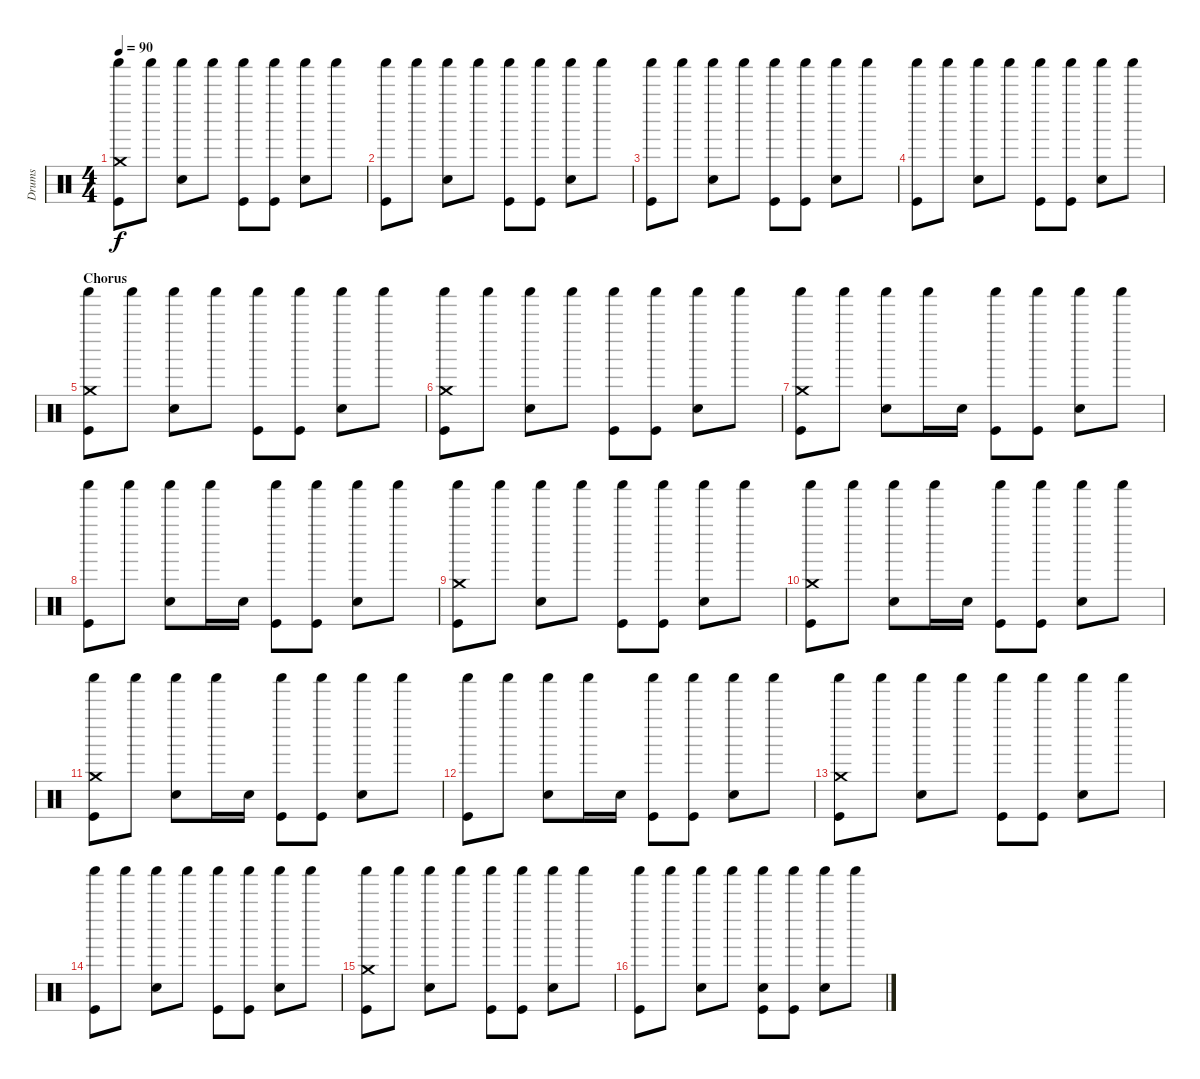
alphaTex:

\track ("Drums" "Drums") {instrument percussion}
\staff {score}
\articulation defaults
\ts (4 4)
\tempo 90
\clef neutral
\ks c
("Shaker (hit)" "Crash medium (hit)" "Kick (hit)").8{dy f} "Shaker (hit)".8 ("Shaker (hit)" "Snare (hit) 2").8 "Shaker (hit)".8 ("Shaker (hit)" "Kick (hit)").8 ("Shaker (hit)" "Kick (hit)").8 ("Shaker (hit)" "Snare (hit) 2").8 "Shaker (hit)".8 |
("Shaker (hit)" "Kick (hit)").8 "Shaker (hit)".8 ("Shaker (hit)" "Snare (hit) 2").8 "Shaker (hit)".8 ("Shaker (hit)" "Kick (hit)").8 ("Shaker (hit)" "Kick (hit)").8 ("Shaker (hit)" "Snare (hit) 2").8 "Shaker (hit)".8 |
("Shaker (hit)" "Kick (hit)").8 "Shaker (hit)".8 ("Shaker (hit)" "Snare (hit) 2").8 "Shaker (hit)".8 ("Shaker (hit)" "Kick (hit)").8 ("Shaker (hit)" "Kick (hit)").8 ("Shaker (hit)" "Snare (hit) 2").8 "Shaker (hit)".8 |
("Shaker (hit)" "Kick (hit)").8 "Shaker (hit)".8 ("Shaker (hit)" "Snare (hit) 2").8 "Shaker (hit)".8 ("Shaker (hit)" "Kick (hit)").8 ("Shaker (hit)" "Kick (hit)").8 ("Shaker (hit)" "Snare (hit) 2").8 "Shaker (hit)".8 |
\section ("" "Chorus")
("Shaker (hit)" "Crash medium (hit)" "Kick (hit)").8 "Shaker (hit)".8 ("Shaker (hit)" "Snare (hit) 2").8 "Shaker (hit)".8 ("Shaker (hit)" "Kick (hit)").8 ("Shaker (hit)" "Kick (hit)").8 ("Shaker (hit)" "Snare (hit) 2").8 "Shaker (hit)".8 |
("Shaker (hit)" "Crash medium (hit)" "Kick (hit)").8 "Shaker (hit)".8 ("Shaker (hit)" "Snare (hit) 2").8 "Shaker (hit)".8 ("Shaker (hit)" "Kick (hit)").8 ("Shaker (hit)" "Kick (hit)").8 ("Shaker (hit)" "Snare (hit) 2").8 "Shaker (hit)".8 |
("Shaker (hit)" "Crash medium (hit)" "Kick (hit)").8 "Shaker (hit)".8 ("Shaker (hit)" "Snare (hit) 2").8 "Shaker (hit)".16 "Snare (hit) 2".16 ("Shaker (hit)" "Kick (hit)").8 ("Shaker (hit)" "Kick (hit)").8 ("Shaker (hit)" "Snare (hit) 2").8 "Shaker (hit)".8 |
("Shaker (hit)" "Kick (hit)").8 "Shaker (hit)".8 ("Shaker (hit)" "Snare (hit) 2").8 "Shaker (hit)".16 "Snare (hit) 2".16 ("Shaker (hit)" "Kick (hit)").8 ("Shaker (hit)" "Kick (hit)").8 ("Shaker (hit)" "Snare (hit) 2").8 "Shaker (hit)".8 |
("Shaker (hit)" "Crash medium (hit)" "Kick (hit)").8 "Shaker (hit)".8 ("Shaker (hit)" "Snare (hit) 2").8 "Shaker (hit)".8 ("Shaker (hit)" "Kick (hit)").8 ("Shaker (hit)" "Kick (hit)").8 ("Shaker (hit)" "Snare (hit) 2").8 "Shaker (hit)".8 |
("Shaker (hit)" "Crash medium (hit)" "Kick (hit)").8 "Shaker (hit)".8 ("Shaker (hit)" "Snare (hit) 2").8 "Shaker (hit)".16 "Snare (hit) 2".16 ("Shaker (hit)" "Kick (hit)").8 ("Shaker (hit)" "Kick (hit)").8 ("Shaker (hit)" "Snare (hit) 2").8 "Shaker (hit)".8 |
("Shaker (hit)" "Crash medium (hit)" "Kick (hit)").8 "Shaker (hit)".8 ("Shaker (hit)" "Snare (hit) 2").8 "Shaker (hit)".16 "Snare (hit) 2".16 ("Shaker (hit)" "Kick (hit)").8 ("Shaker (hit)" "Kick (hit)").8 ("Shaker (hit)" "Snare (hit) 2").8 "Shaker (hit)".8 |
("Shaker (hit)" "Kick (hit)").8 "Shaker (hit)".8 ("Shaker (hit)" "Snare (hit) 2").8 "Shaker (hit)".16 "Snare (hit) 2".16 ("Shaker (hit)" "Kick (hit)").8 ("Shaker (hit)" "Kick (hit)").8 ("Shaker (hit)" "Snare (hit) 2").8 "Shaker (hit)".8 |
("Shaker (hit)" "Crash medium (hit)" "Kick (hit)").8 "Shaker (hit)".8 ("Shaker (hit)" "Snare (hit) 2").8 "Shaker (hit)".8 ("Shaker (hit)" "Kick (hit)").8 ("Shaker (hit)" "Kick (hit)").8 ("Shaker (hit)" "Snare (hit) 2").8 "Shaker (hit)".8 |
("Shaker (hit)" "Kick (hit)").8 "Shaker (hit)".8 ("Shaker (hit)" "Snare (hit) 2").8 "Shaker (hit)".8 ("Shaker (hit)" "Kick (hit)").8 ("Shaker (hit)" "Kick (hit)").8 ("Shaker (hit)" "Snare (hit) 2").8 "Shaker (hit)".8 |
("Shaker (hit)" "Crash medium (hit)" "Kick (hit)").8 "Shaker (hit)".8 ("Shaker (hit)" "Snare (hit) 2").8 "Shaker (hit)".8 ("Shaker (hit)" "Kick (hit)").8 ("Shaker (hit)" "Kick (hit)").8 ("Shaker (hit)" "Snare (hit) 2").8 "Shaker (hit)".8 |
("Shaker (hit)" "Kick (hit)").8 "Shaker (hit)".8 ("Shaker (hit)" "Snare (hit) 2").8 "Shaker (hit)".8 ("Shaker (hit)" "Snare (hit) 2" "Kick (hit)").8 ("Shaker (hit)" "Kick (hit)").8 ("Shaker (hit)" "Snare (hit) 2").8 "Shaker (hit)".8
